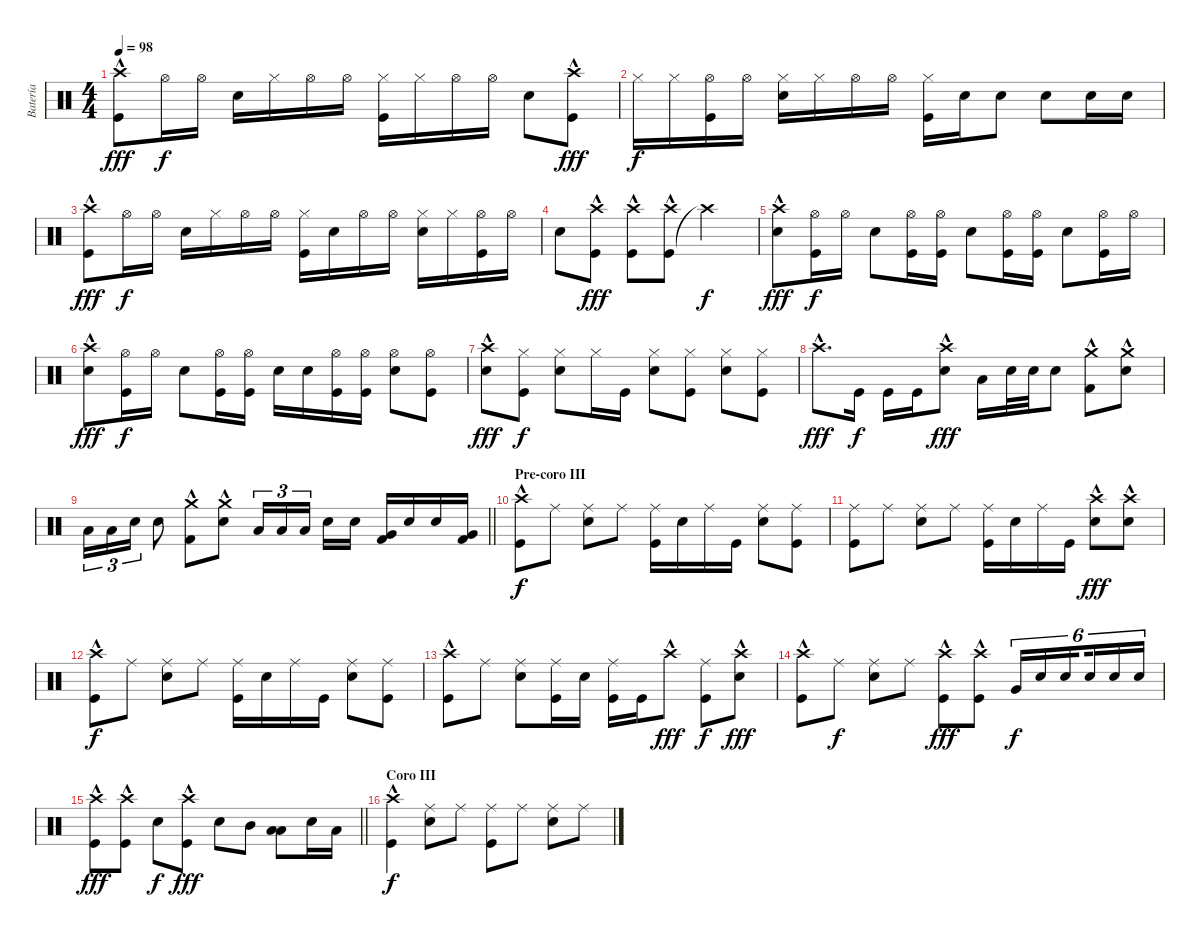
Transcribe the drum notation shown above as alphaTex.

\track ("Batería" "Batería") {instrument percussion}
\staff {score}
\articulation defaults
\ts (4 4)
\tempo 98
\clef neutral
\ks aminor
("Crash high (hit)"{hac} "Kick (hit)").8{dy fff} "Hi-Hat (open)".16{dy f} "Hi-Hat (open)".16 "Snare (hit) 2".16 "Hi-Hat (closed)".16 "Hi-Hat (open)".16 "Hi-Hat (open)".16 ("Kick (hit)" "Hi-Hat (closed)").16 "Hi-Hat (closed)".16 "Hi-Hat (open)".16 "Hi-Hat (open)".16 "Snare (hit) 2".8 ("Kick (hit)" "Crash high (hit)"{hac}).8{dy fff} |
"Hi-Hat (closed)".16{dy f} "Hi-Hat (closed)".16 ("Hi-Hat (open)" "Kick (hit)").16 "Hi-Hat (open)".16 ("Snare (hit) 2" "Hi-Hat (closed)").16 "Hi-Hat (closed)".16 "Hi-Hat (open)".16 "Hi-Hat (open)".16 ("Kick (hit)" "Hi-Hat (closed)").16 "Snare (hit) 2".16 "Snare (hit) 2".8 "Snare (hit) 2".8 "Snare (hit) 2".16 "Snare (hit) 2".16 |
("Crash high (hit)"{hac} "Kick (hit)").8{dy fff} "Hi-Hat (open)".16{dy f} "Hi-Hat (open)".16 "Snare (hit) 2".16 "Hi-Hat (closed)".16 "Hi-Hat (open)".16 "Hi-Hat (open)".16 ("Kick (hit)" "Hi-Hat (closed)").16 "Snare (hit) 2".16 "Hi-Hat (open)".16 "Hi-Hat (open)".16 ("Snare (hit) 2" "Hi-Hat (closed)").16 "Hi-Hat (closed)".16 ("Hi-Hat (open)" "Kick (hit)").16 "Hi-Hat (open)".16 |
"Snare (hit) 2".8 ("Kick (hit)" "Crash high (hit)"{hac}).8{dy fff} ("Kick (hit)" "Crash high (hit)"{hac}).8 ("Kick (hit)" "Crash high (hit)"{hac}).8 "Crash high (hit)"{t}.2{dy f} |
("Snare (hit) 2" "Crash high (hit)"{hac}).8{dy fff} ("Hi-Hat (open)" "Kick (hit)").16{dy f} "Hi-Hat (open)".16 "Snare (hit) 2".8 ("Hi-Hat (open)" "Kick (hit)").16 ("Hi-Hat (open)" "Kick (hit)").16 "Snare (hit) 2".8 ("Hi-Hat (open)" "Kick (hit)").16 ("Hi-Hat (open)" "Kick (hit)").16 "Snare (hit) 2".8 ("Hi-Hat (open)" "Kick (hit)").16 "Hi-Hat (open)".16 |
("Snare (hit) 2" "Crash high (hit)"{hac}).8{dy fff} ("Hi-Hat (open)" "Kick (hit)").16{dy f} "Hi-Hat (open)".16 "Snare (hit) 2".8 ("Hi-Hat (open)" "Kick (hit)").16 ("Hi-Hat (open)" "Kick (hit)").16 "Snare (hit) 2".16 "Snare (hit) 2".16 ("Hi-Hat (open)" "Kick (hit)").16 ("Hi-Hat (open)" "Kick (hit)").16 ("Snare (hit) 2" "Hi-Hat (open)").8 ("Hi-Hat (open)" "Kick (hit)").8 |
("Crash high (hit)"{hac} "Snare (hit) 2").8{dy fff} ("Hi-Hat (closed)" "Kick (hit)").8{dy f} ("Hi-Hat (closed)" "Snare (hit) 2").8 "Hi-Hat (closed)".16 "Kick (hit)".16 ("Hi-Hat (closed)" "Snare (hit) 2").8 ("Hi-Hat (closed)" "Kick (hit)").8 ("Hi-Hat (closed)" "Snare (hit) 2").8 ("Hi-Hat (closed)" "Kick (hit)").8 |
"Crash high (hit)"{hac}.8{d dy fff} "Kick (hit)".16{dy f} "Kick (hit)".16 "Kick (hit)".16 ("Snare (hit) 2" "Crash high (hit)"{hac}).8{dy fff} "Low Tom (hit)".16 "Snare (hit) 2".32 "Snare (hit) 2".32 "Snare (hit) 2".8 ("Kick (hit) 2" "Crash medium (hit)"{hac}).8 ("Crash medium (hit)"{hac} "Electric Snare (hit)").8 |
\barLineRight lightlight "Low Tom (hit)".16{tu (3 2)} "Low Tom (hit)".16{tu (3 2)} "Electric Snare (hit)".16{tu (3 2)} "Electric Snare (hit)".8
("Crash medium (hit)"{hac} "Kick (hit) 2").8 ("Electric Snare (hit)"{hac} "Crash medium (hit)").8 "Low Tom (hit)".16{tu (3 2)} "Low Tom (hit)".16{tu (3 2)} "Low Tom (hit)".16{tu (3 2) beam splitsecondary} "Electric Snare (hit)".16 "Electric Snare (hit)".16 ("Kick (hit) 2" "Very Low Tom (hit)").16 "Electric Snare (hit)".16 "Electric Snare (hit)".16 ("Very Low Tom (hit)" "Kick (hit) 2").16 |
\section ("" "Pre-coro III")
("Kick (hit)" "Crash high (hit)"{hac}).8{dy f} "Ride (middle)".8 ("Ride (middle)" "Snare (hit) 2").8 "Ride (middle)".8 ("Ride (middle)" "Kick (hit)").16 "Snare (hit) 2".16 "Ride (middle)".16 "Kick (hit)".16 ("Snare (hit) 2" "Ride (middle)").8 ("Ride (middle)" "Kick (hit)").8 |
("Kick (hit)" "Ride (middle)").8 "Ride (middle)".8 ("Ride (middle)" "Snare (hit) 2").8 "Ride (middle)".8 ("Ride (middle)" "Kick (hit)").16 "Snare (hit) 2".16 "Ride (middle)".16 "Kick (hit)".16 ("Snare (hit) 2" "Crash high (hit)"{hac}).8{dy fff} ("Crash high (hit)"{hac} "Snare (hit) 2").8 |
("Kick (hit)" "Crash high (hit)"{hac}).8{dy f} "Ride (middle)".8 ("Ride (middle)" "Snare (hit) 2").8 "Ride (middle)".8 ("Ride (middle)" "Kick (hit)").16 "Snare (hit) 2".16 "Ride (middle)".16 "Kick (hit)".16 ("Snare (hit) 2" "Ride (middle)").8 ("Ride (middle)" "Kick (hit)").8 |
("Kick (hit)" "Crash high (hit)"{hac}).8 "Ride (middle)".8 ("Ride (middle)" "Snare (hit) 2").8 ("Ride (middle)" "Kick (hit)").16 "Snare (hit) 2".16 ("Ride (middle)" "Kick (hit)").16 "Kick (hit)".16 "Crash high (hit)"{hac}.8{dy fff} ("Ride (middle)" "Kick (hit)").8{dy f} ("Crash high (hit)"{hac} "Snare (hit) 2").8{dy fff} |
("Crash high (hit)"{hac} "Kick (hit)").8 "Ride (middle)".8{dy f} ("Ride (middle)" "Snare (hit) 2").8 "Ride (middle)".8 ("Crash high (hit)"{hac} "Kick (hit)").8{dy fff} ("Crash high (hit)"{hac} "Kick (hit)").8 "Very Low Tom (hit)".16{tu (6 4) dy f} "Snare (hit) 2".16{tu (6 4)} "Snare (hit) 2".16{tu (6 4) beam splitsecondary} "Snare (hit) 2".16{tu (6 4)} "Snare (hit) 2".16{tu (6 4)} "Snare (hit) 2".16{tu (6 4)} |
\barLineRight lightlight
("Crash high (hit)"{hac} "Kick (hit)").8{dy fff} ("Crash high (hit)"{hac} "Kick (hit)").8 "Snare (hit) 2".8{dy f} ("Crash high (hit)"{hac} "Kick (hit)").8{dy fff} "Snare (hit) 2".8 "Mid Tom (hit)".8 ("Low Tom (hit)" "Low Tom (hit)").8 "Snare (hit) 2".16 "Low Tom (hit)".16 |
\section ("" "Coro III")
("Kick (hit)" "Crash high (hit)"{hac}).4{dy f} ("Ride (middle)" "Snare (hit) 2").8 "Ride (middle)".8 ("Ride (middle)" "Kick (hit)").8 "Ride (middle)".8 ("Ride (middle)" "Snare (hit) 2").8 "Ride (middle)".8
